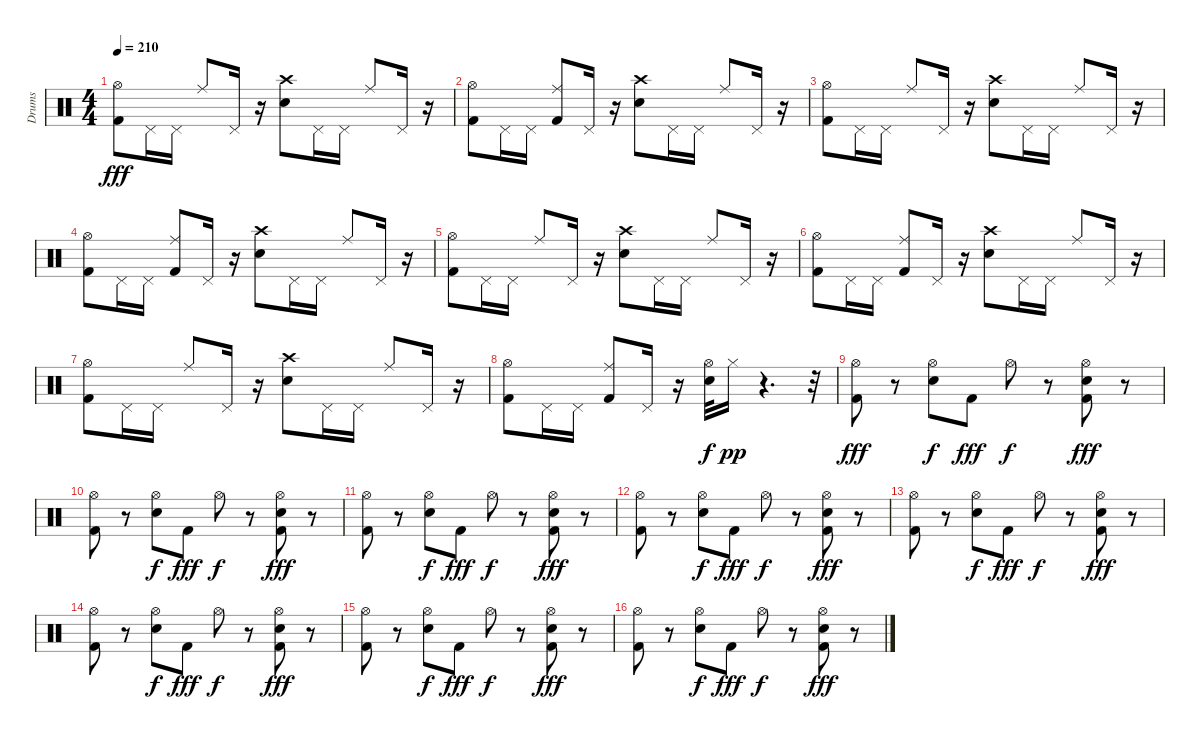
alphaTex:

\track ("Drums" "Drums") {instrument percussion}
\staff {score}
\articulation defaults
\ts (4 4)
\tempo 210
\clef neutral
\ks c
("Hi-Hat (open)" "Kick (hit) 2").8{dy fff} "Pedal Hi-Hat (hit)".16 "Pedal Hi-Hat (hit)".16 "Ride (middle)".8 "Pedal Hi-Hat (hit)".16 r.16 ("Crash high (hit)" "Electric Snare (hit)").8 "Pedal Hi-Hat (hit)".16 "Pedal Hi-Hat (hit)".16 "Ride (middle)".8 "Pedal Hi-Hat (hit)".16 r.16 |
("Hi-Hat (open)" "Kick (hit) 2").8 "Pedal Hi-Hat (hit)".16 "Pedal Hi-Hat (hit)".16 ("Ride (middle)" "Kick (hit) 2").8 "Pedal Hi-Hat (hit)".16 r.16 ("Crash high (hit)" "Electric Snare (hit)").8 "Pedal Hi-Hat (hit)".16 "Pedal Hi-Hat (hit)".16 "Ride (middle)".8 "Pedal Hi-Hat (hit)".16 r.16 |
("Hi-Hat (open)" "Kick (hit) 2").8 "Pedal Hi-Hat (hit)".16 "Pedal Hi-Hat (hit)".16 "Ride (middle)".8 "Pedal Hi-Hat (hit)".16 r.16 ("Crash high (hit)" "Electric Snare (hit)").8 "Pedal Hi-Hat (hit)".16 "Pedal Hi-Hat (hit)".16 "Ride (middle)".8 "Pedal Hi-Hat (hit)".16 r.16 |
("Hi-Hat (open)" "Kick (hit) 2").8 "Pedal Hi-Hat (hit)".16 "Pedal Hi-Hat (hit)".16 ("Ride (middle)" "Kick (hit) 2").8 "Pedal Hi-Hat (hit)".16 r.16 ("Crash high (hit)" "Electric Snare (hit)").8 "Pedal Hi-Hat (hit)".16 "Pedal Hi-Hat (hit)".16 "Ride (middle)".8 "Pedal Hi-Hat (hit)".16 r.16 |
("Hi-Hat (open)" "Kick (hit) 2").8 "Pedal Hi-Hat (hit)".16 "Pedal Hi-Hat (hit)".16 "Ride (middle)".8 "Pedal Hi-Hat (hit)".16 r.16 ("Crash high (hit)" "Electric Snare (hit)").8 "Pedal Hi-Hat (hit)".16 "Pedal Hi-Hat (hit)".16 "Ride (middle)".8 "Pedal Hi-Hat (hit)".16 r.16 |
("Hi-Hat (open)" "Kick (hit) 2").8 "Pedal Hi-Hat (hit)".16 "Pedal Hi-Hat (hit)".16 ("Ride (middle)" "Kick (hit) 2").8 "Pedal Hi-Hat (hit)".16 r.16 ("Crash high (hit)" "Electric Snare (hit)").8 "Pedal Hi-Hat (hit)".16 "Pedal Hi-Hat (hit)".16 "Ride (middle)".8 "Pedal Hi-Hat (hit)".16 r.16 |
("Hi-Hat (open)" "Kick (hit) 2").8 "Pedal Hi-Hat (hit)".16 "Pedal Hi-Hat (hit)".16 "Ride (middle)".8 "Pedal Hi-Hat (hit)".16 r.16 ("Crash high (hit)" "Electric Snare (hit)").8 "Pedal Hi-Hat (hit)".16 "Pedal Hi-Hat (hit)".16 "Ride (middle)".8 "Pedal Hi-Hat (hit)".16 r.16 |
("Hi-Hat (open)" "Kick (hit) 2").8 "Pedal Hi-Hat (hit)".16 "Pedal Hi-Hat (hit)".16 ("Ride (middle)" "Kick (hit) 2").8 "Pedal Hi-Hat (hit)".16 r.16 ("Hi-Hat (open)" "Electric Snare (hit)").32{dy f} "Hi-Hat (closed)".16{dy pp} r.4{d} r.32 |
("Hi-Hat (open)" "Kick (hit) 2").8{dy fff} r.8 ("Hi-Hat (open)" "Electric Snare (hit)").8{dy f} "Kick (hit) 2".8{dy fff} "Hi-Hat (open)".8{dy f} r.8 ("Hi-Hat (open)" "Electric Snare (hit)" "Kick (hit) 2").8{dy fff} r.8 |
("Hi-Hat (open)" "Kick (hit) 2").8 r.8 ("Hi-Hat (open)" "Electric Snare (hit)").8{dy f} "Kick (hit) 2".8{dy fff} "Hi-Hat (open)".8{dy f} r.8 ("Hi-Hat (open)" "Electric Snare (hit)" "Kick (hit) 2").8{dy fff} r.8 |
("Hi-Hat (open)" "Kick (hit) 2").8 r.8 ("Hi-Hat (open)" "Electric Snare (hit)").8{dy f} "Kick (hit) 2".8{dy fff} "Hi-Hat (open)".8{dy f} r.8 ("Hi-Hat (open)" "Electric Snare (hit)" "Kick (hit) 2").8{dy fff} r.8 |
("Hi-Hat (open)" "Kick (hit) 2").8 r.8 ("Hi-Hat (open)" "Electric Snare (hit)").8{dy f} "Kick (hit) 2".8{dy fff} "Hi-Hat (open)".8{dy f} r.8 ("Hi-Hat (open)" "Electric Snare (hit)" "Kick (hit) 2").8{dy fff} r.8 |
("Hi-Hat (open)" "Kick (hit) 2").8 r.8 ("Hi-Hat (open)" "Electric Snare (hit)").8{dy f} "Kick (hit) 2".8{dy fff} "Hi-Hat (open)".8{dy f} r.8 ("Hi-Hat (open)" "Electric Snare (hit)" "Kick (hit) 2").8{dy fff} r.8 |
("Hi-Hat (open)" "Kick (hit) 2").8 r.8 ("Hi-Hat (open)" "Electric Snare (hit)").8{dy f} "Kick (hit) 2".8{dy fff} "Hi-Hat (open)".8{dy f} r.8 ("Hi-Hat (open)" "Electric Snare (hit)" "Kick (hit) 2").8{dy fff} r.8 |
("Hi-Hat (open)" "Kick (hit) 2").8 r.8 ("Hi-Hat (open)" "Electric Snare (hit)").8{dy f} "Kick (hit) 2".8{dy fff} "Hi-Hat (open)".8{dy f} r.8 ("Hi-Hat (open)" "Electric Snare (hit)" "Kick (hit) 2").8{dy fff} r.8 |
("Hi-Hat (open)" "Kick (hit) 2").8 r.8 ("Hi-Hat (open)" "Electric Snare (hit)").8{dy f} "Kick (hit) 2".8{dy fff} "Hi-Hat (open)".8{dy f} r.8 ("Hi-Hat (open)" "Electric Snare (hit)" "Kick (hit) 2").8{dy fff} r.8
